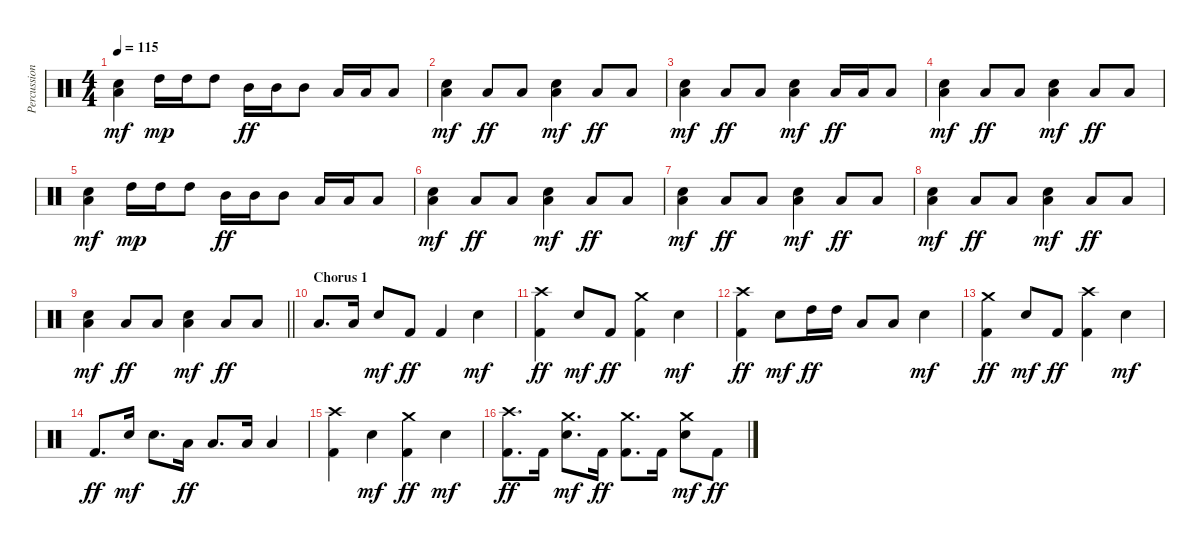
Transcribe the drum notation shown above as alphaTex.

\track ("Percussion" "Percussion") {instrument percussion}
\staff {score}
\articulation defaults
\ts (4 4)
\tempo 115
\clef neutral
\ks c
("Low Floor Tom (hit)" "Snare (hit) 2").4{dy mf} "High Tom (hit)".16{dy mp} "High Tom (hit)".16 "High Tom (hit)".8 "Mid Tom (hit)".16{dy ff} "Mid Tom (hit)".16 "Mid Tom (hit)".8 "Low Tom (hit)".16 "Low Tom (hit)".16 "Low Tom (hit)".8 |
("Low Floor Tom (hit)" "Snare (hit) 2").4{dy mf} "Low Floor Tom (hit)".8{dy ff} "Low Floor Tom (hit)".8 ("Low Floor Tom (hit)" "Snare (hit) 2").4{dy mf} "Low Floor Tom (hit)".8{dy ff} "Low Floor Tom (hit)".8 |
("Low Floor Tom (hit)" "Snare (hit) 2").4{dy mf} "Low Floor Tom (hit)".8{dy ff} "Low Floor Tom (hit)".8 ("Low Floor Tom (hit)" "Snare (hit) 2").4{dy mf} "Low Tom (hit)".16{dy ff} "Low Tom (hit)".16 "Low Tom (hit)".8 |
("Low Floor Tom (hit)" "Snare (hit) 2").4{dy mf} "Low Floor Tom (hit)".8{dy ff} "Low Floor Tom (hit)".8 ("Low Floor Tom (hit)" "Snare (hit) 2").4{dy mf} "Low Floor Tom (hit)".8{dy ff} "Low Floor Tom (hit)".8 |
("Low Floor Tom (hit)" "Snare (hit) 2").4{dy mf} "High Tom (hit)".16{dy mp} "High Tom (hit)".16 "High Tom (hit)".8 "Mid Tom (hit)".16{dy ff} "Mid Tom (hit)".16 "Mid Tom (hit)".8 "Low Tom (hit)".16 "Low Tom (hit)".16 "Low Tom (hit)".8 |
("Low Floor Tom (hit)" "Snare (hit) 2").4{dy mf} "Low Floor Tom (hit)".8{dy ff} "Low Floor Tom (hit)".8 ("Low Floor Tom (hit)" "Snare (hit) 2").4{dy mf} "Low Floor Tom (hit)".8{dy ff} "Low Floor Tom (hit)".8 |
("Low Floor Tom (hit)" "Snare (hit) 2").4{dy mf} "Low Floor Tom (hit)".8{dy ff} "Low Floor Tom (hit)".8 ("Low Floor Tom (hit)" "Snare (hit) 2").4{dy mf} "Low Floor Tom (hit)".8{dy ff} "Low Floor Tom (hit)".8 |
("Low Floor Tom (hit)" "Snare (hit) 2").4{dy mf} "Low Floor Tom (hit)".8{dy ff} "Low Floor Tom (hit)".8 ("Low Floor Tom (hit)" "Snare (hit) 2").4{dy mf} "Low Floor Tom (hit)".8{dy ff} "Low Floor Tom (hit)".8 |
\barLineRight lightlight
("Low Floor Tom (hit)" "Snare (hit) 2").4{dy mf} "Low Floor Tom (hit)".8{dy ff} "Low Floor Tom (hit)".8 ("Low Floor Tom (hit)" "Snare (hit) 2").4{dy mf} "Low Floor Tom (hit)".8{dy ff} "Low Floor Tom (hit)".8 |
\section ("" "Chorus 1")
"Low Floor Tom (hit)".8{d} "Low Floor Tom (hit)".16 "Snare (hit) 2".8{dy mf} "Kick (hit) 2".8{dy ff} "Kick (hit) 2".4 "Snare (hit) 2".4{dy mf} |
("Crash high (hit)" "Kick (hit) 2").4{dy ff} "Snare (hit) 2".8{dy mf} "Kick (hit) 2".8{dy ff} ("Crash medium (hit)" "Kick (hit) 2").4 "Snare (hit) 2".4{dy mf} |
("Crash high (hit)" "Kick (hit) 2").4{dy ff} "Snare (hit) 2".8{dy mf} "High Tom (hit)".16{dy ff} "High Tom (hit)".16 "Low Floor Tom (hit)".8 "Low Floor Tom (hit)".8 "Snare (hit) 2".4{dy mf} |
("Crash medium (hit)" "Kick (hit) 2").4{dy ff} "Snare (hit) 2".8{dy mf} "Kick (hit) 2".8{dy ff} ("Crash high (hit)" "Kick (hit) 2").4 "Snare (hit) 2".4{dy mf} |
"Kick (hit) 2".8{d dy ff} "Snare (hit) 2".16{dy mf} "Snare (hit) 2".8{d} "Low Tom (hit)".16{dy ff} "Low Tom (hit)".8{d} "Low Floor Tom (hit)".16 "Low Floor Tom (hit)".4 |
("Crash high (hit)" "Kick (hit) 2").4 "Snare (hit) 2".4{dy mf} ("Crash medium (hit)" "Kick (hit) 2").4{dy ff} "Snare (hit) 2".4{dy mf} |
("Crash high (hit)" "Kick (hit) 2").8{d dy ff} "Kick (hit) 2".16 ("Crash medium (hit)" "Snare (hit) 2").8{d dy mf} "Kick (hit) 2".16{dy ff} ("Crash medium (hit)" "Kick (hit) 2").8{d} "Kick (hit) 2".16 ("Crash medium (hit)" "Snare (hit) 2").8{dy mf} "Kick (hit) 2".8{dy ff}
